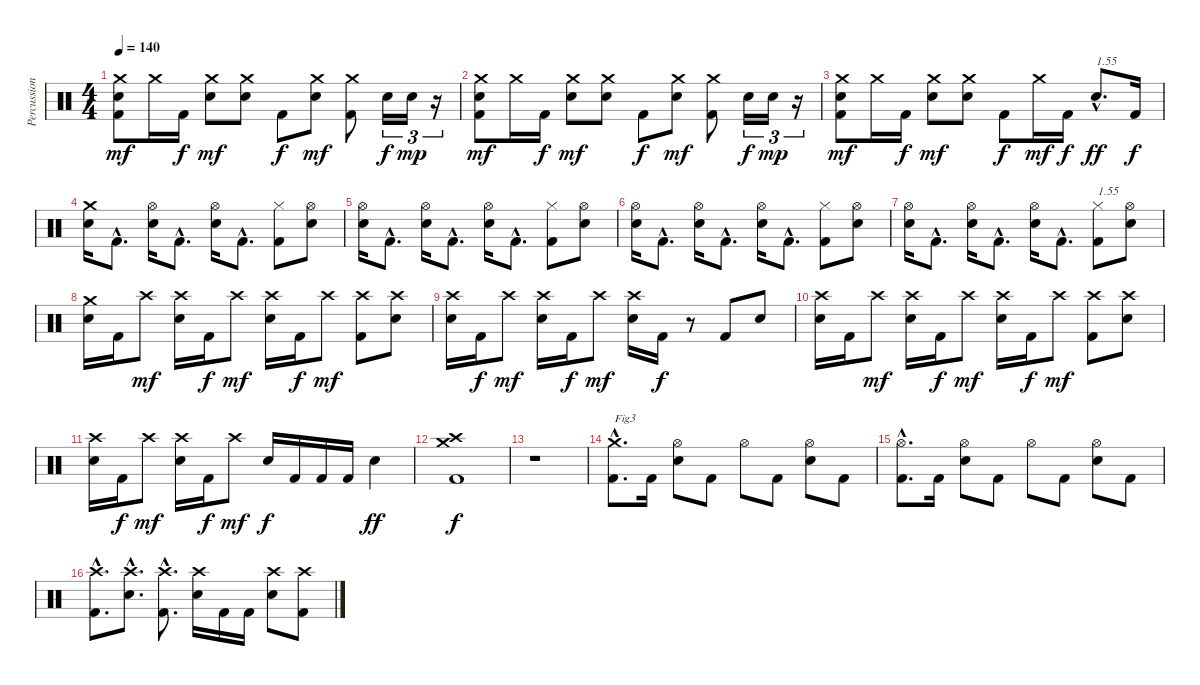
\track ("Percussions" "Percussion") {instrument percussion}
\staff {score}
\articulation defaults
\ts (4 4)
\tempo 140
\clef neutral
\ks c
("Kick (hit) 2" "Electric Snare (hit)" "Crash medium (hit)").8{dy mf} "Crash medium (hit)".16 "Kick (hit) 2".16{dy f} ("Electric Snare (hit)" "Crash medium (hit)").8{dy mf} ("Electric Snare (hit)" "Crash medium (hit)").8 "Kick (hit) 2".8{dy f} ("Electric Snare (hit)" "Crash medium (hit)").8{dy mf} ("Kick (hit) 2" "Crash medium (hit)").8 "Electric Snare (hit)".16{tu (3 2) dy f} "Electric Snare (hit)".16{tu (3 2) dy mp} r.16{tu (3 2)} |
("Kick (hit) 2" "Electric Snare (hit)" "Crash medium (hit)").8{dy mf} "Crash medium (hit)".16 "Kick (hit) 2".16{dy f} ("Electric Snare (hit)" "Crash medium (hit)").8{dy mf} ("Electric Snare (hit)" "Crash medium (hit)").8 "Kick (hit) 2".8{dy f} ("Electric Snare (hit)" "Crash medium (hit)").8{dy mf} ("Kick (hit) 2" "Crash medium (hit)").8 "Electric Snare (hit)".16{tu (3 2) dy f} "Electric Snare (hit)".16{tu (3 2) dy mp} r.16{tu (3 2)} |
("Kick (hit) 2" "Electric Snare (hit)" "Crash medium (hit)").8{dy mf} "Crash medium (hit)".16 "Kick (hit) 2".16{dy f} ("Electric Snare (hit)" "Crash medium (hit)").8{dy mf} ("Electric Snare (hit)" "Crash medium (hit)").8 "Kick (hit) 2".8{dy f} "Crash medium (hit)".16{dy mf} "Kick (hit) 2".16{dy f} "Electric Snare (hit)"{hac}.8{d txt "1.55" dy ff} "Kick (hit) 2".16{dy f} |
("Electric Snare (hit)" "Crash medium (hit)").16 "Kick (hit) 2"{hac}.8{d} ("Electric Snare (hit)" "Hi-Hat (open)").16 "Kick (hit) 2"{hac}.8{d} ("Electric Snare (hit)" "Hi-Hat (open)").16 "Kick (hit) 2"{hac}.8{d} ("Kick (hit) 2" "Hi-Hat (closed)").8 ("Electric Snare (hit)" "Hi-Hat (open)").8 |
("Electric Snare (hit)" "Hi-Hat (open)").16 "Kick (hit) 2"{hac}.8{d} ("Electric Snare (hit)" "Hi-Hat (open)").16 "Kick (hit) 2"{hac}.8{d} ("Electric Snare (hit)" "Hi-Hat (open)").16 "Kick (hit) 2"{hac}.8{d} ("Kick (hit) 2" "Hi-Hat (closed)").8 ("Electric Snare (hit)" "Hi-Hat (open)").8 |
("Electric Snare (hit)" "Hi-Hat (open)").16 "Kick (hit) 2"{hac}.8{d} ("Electric Snare (hit)" "Hi-Hat (open)").16 "Kick (hit) 2"{hac}.8{d} ("Electric Snare (hit)" "Hi-Hat (open)").16 "Kick (hit) 2"{hac}.8{d} ("Kick (hit) 2" "Hi-Hat (closed)").8 ("Electric Snare (hit)" "Hi-Hat (open)").8 |
("Electric Snare (hit)" "Hi-Hat (open)").16 "Kick (hit) 2"{hac}.8{d} ("Electric Snare (hit)" "Hi-Hat (open)").16 "Kick (hit) 2"{hac}.8{d} ("Electric Snare (hit)" "Hi-Hat (open)").16 "Kick (hit) 2"{hac}.8{d} ("Kick (hit) 2" "Hi-Hat (closed)").8{txt "1.55"} ("Electric Snare (hit)" "Hi-Hat (open)").8 |
("Electric Snare (hit)" "Crash medium (hit)").16 "Kick (hit) 2".16 "Crash high (hit)".8{dy mf} ("Electric Snare (hit)" "Crash high (hit)").16 "Kick (hit) 2".16{dy f} "Crash high (hit)".8{dy mf} ("Electric Snare (hit)" "Crash high (hit)").16 "Kick (hit) 2".16{dy f} "Crash high (hit)".8{dy mf} ("Kick (hit) 2" "Crash high (hit)").8 ("Electric Snare (hit)" "Crash high (hit)").8 |
("Electric Snare (hit)" "Crash high (hit)").16 "Kick (hit) 2".16{dy f} "Crash high (hit)".8{dy mf} ("Electric Snare (hit)" "Crash high (hit)").16 "Kick (hit) 2".16{dy f} "Crash high (hit)".8{dy mf} ("Electric Snare (hit)" "Crash high (hit)").16 "Kick (hit) 2".16{dy f} r.8 "Kick (hit) 2".8 "Electric Snare (hit)".8 |
("Electric Snare (hit)" "Crash high (hit)").16 "Kick (hit) 2".16 "Crash high (hit)".8{dy mf} ("Electric Snare (hit)" "Crash high (hit)").16 "Kick (hit) 2".16{dy f} "Crash high (hit)".8{dy mf} ("Electric Snare (hit)" "Crash high (hit)").16 "Kick (hit) 2".16{dy f} "Crash high (hit)".8{dy mf} ("Kick (hit) 2" "Crash high (hit)").8 ("Electric Snare (hit)" "Crash high (hit)").8 |
("Electric Snare (hit)" "Crash high (hit)").16 "Kick (hit) 2".16{dy f} "Crash high (hit)".8{dy mf} ("Electric Snare (hit)" "Crash high (hit)").16 "Kick (hit) 2".16{dy f} "Crash high (hit)".8{dy mf} "Electric Snare (hit)".16{dy f} "Kick (hit) 2".16 "Kick (hit) 2".16 "Kick (hit) 2".16 "Electric Snare (hit)".4{dy ff} |
("Kick (hit) 2" "Crash high (hit)" "Crash medium (hit)").1{dy f} |
r.1 |
("Kick (hit) 2"{hac} "Crash medium (hit)"{hac}).8{d txt "Fig3"} "Kick (hit) 2".16 ("Electric Snare (hit)" "Hi-Hat (open)").8 "Kick (hit) 2".8 "Hi-Hat (open)".8 "Kick (hit) 2".8 ("Electric Snare (hit)" "Hi-Hat (open)").8 "Kick (hit) 2".8 |
("Kick (hit) 2"{hac} "Hi-Hat (open)"{hac}).8{d} "Kick (hit) 2".16 ("Electric Snare (hit)" "Hi-Hat (open)").8 "Kick (hit) 2".8 "Hi-Hat (open)".8 "Kick (hit) 2".8 ("Electric Snare (hit)" "Hi-Hat (open)").8 "Kick (hit) 2".8 |
("Kick (hit) 2"{hac} "Crash high (hit)"{hac}).8{d} ("Electric Snare (hit)"{hac} "Crash high (hit)"{hac}).8{d} ("Kick (hit) 2"{hac} "Crash high (hit)"{hac}).8{d} ("Electric Snare (hit)" "Crash high (hit)").16 "Kick (hit) 2".16 "Kick (hit) 2".16 ("Electric Snare (hit)" "Crash high (hit)").8 ("Kick (hit) 2" "Crash high (hit)").8
